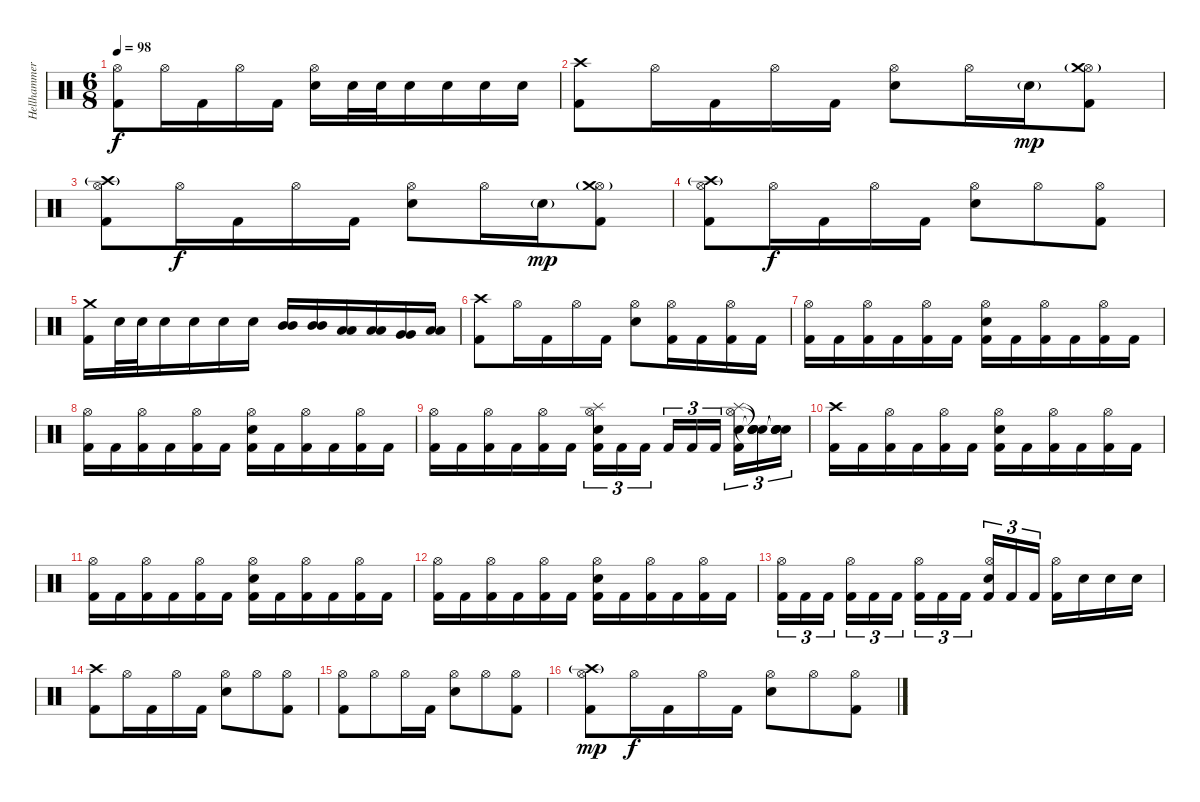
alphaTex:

\track ("Hellhammer (Drums)" "Hellhammer") {instrument percussion}
\staff {score}
\articulation defaults
\ts (6 8)
\tempo 98
\clef neutral
\ks c
("Kick (hit) 2" "Hi-Hat (open)").8{dy f} "Hi-Hat (open)".16 "Kick (hit) 2".16 "Hi-Hat (open)".16 "Kick (hit) 2".16 ("Electric Snare (hit)" "Hi-Hat (open)").16 "Electric Snare (hit)".32 "Electric Snare (hit)".32 "Electric Snare (hit)".16 "Electric Snare (hit)".16 "Electric Snare (hit)".16 "Electric Snare (hit)".16 |
("Kick (hit) 2" "Crash high (hit)").8 "Hi-Hat (open)".16 "Kick (hit) 2".16 "Hi-Hat (open)".16 "Kick (hit) 2".16 ("Electric Snare (hit)" "Hi-Hat (open)").8 "Hi-Hat (open)".16 "Electric Snare (hit)"{g}.16{dy mp} ("Kick (hit) 2" "Hi-Hat (open)" "Crash medium (hit)"{g}).8 |
("Kick (hit) 2" "Hi-Hat (open)" "Crash high (hit)"{g}).8 "Hi-Hat (open)".16{dy f} "Kick (hit) 2".16 "Hi-Hat (open)".16 "Kick (hit) 2".16 ("Electric Snare (hit)" "Hi-Hat (open)").8 "Hi-Hat (open)".16 "Electric Snare (hit)"{g}.16{dy mp} ("Kick (hit) 2" "Hi-Hat (open)" "Crash medium (hit)"{g}).8 |
("Kick (hit) 2" "Hi-Hat (open)" "Crash high (hit)"{g}).8 "Hi-Hat (open)".16{dy f} "Kick (hit) 2".16 "Hi-Hat (open)".16 "Kick (hit) 2".16 ("Electric Snare (hit)" "Hi-Hat (open)").8 "Hi-Hat (open)".8 ("Kick (hit) 2" "Hi-Hat (open)").8 |
("Kick (hit) 2" "Crash medium (hit)").16 "Electric Snare (hit)".32 "Electric Snare (hit)".32 "Electric Snare (hit)".16 "Electric Snare (hit)".16 "Electric Snare (hit)".16 "Electric Snare (hit)".16 ("Mid Tom (hit)" "Mid Tom (hit)").16 ("Mid Tom (hit)" "Mid Tom (hit)").16 ("Low Tom (hit)" "Low Tom (hit)").16 ("Low Tom (hit)" "Low Tom (hit)").16 ("Very Low Tom (hit)" "Very Low Tom (hit)").16 ("Low Floor Tom (hit)" "Low Floor Tom (hit)").16 |
("Kick (hit) 2" "Crash high (hit)").8 "Hi-Hat (open)".16 "Kick (hit) 2".16 "Hi-Hat (open)".16 "Kick (hit) 2".16 ("Electric Snare (hit)" "Hi-Hat (open)").8 ("Kick (hit) 2" "Hi-Hat (open)").16 "Kick (hit) 2".16 ("Kick (hit) 2" "Hi-Hat (open)").16 "Kick (hit) 2".16 |
("Kick (hit) 2" "Hi-Hat (open)").16 "Kick (hit) 2".16 ("Kick (hit) 2" "Hi-Hat (open)").16 "Kick (hit) 2".16 ("Kick (hit) 2" "Hi-Hat (open)").16 "Kick (hit) 2".16 ("Kick (hit) 2" "Electric Snare (hit)" "Hi-Hat (open)").16 "Kick (hit) 2".16 ("Kick (hit) 2" "Hi-Hat (open)").16 "Kick (hit) 2".16 ("Kick (hit) 2" "Hi-Hat (open)").16 "Kick (hit) 2".16 |
("Kick (hit) 2" "Hi-Hat (open)").16 "Kick (hit) 2".16 ("Kick (hit) 2" "Hi-Hat (open)").16 "Kick (hit) 2".16 ("Kick (hit) 2" "Hi-Hat (open)").16 "Kick (hit) 2".16 ("Kick (hit) 2" "Electric Snare (hit)" "Hi-Hat (open)").16 "Kick (hit) 2".16 ("Kick (hit) 2" "Hi-Hat (open)").16 "Kick (hit) 2".16 ("Kick (hit) 2" "Hi-Hat (open)").16 "Kick (hit) 2".16 |
("Kick (hit) 2" "Hi-Hat (open)").16 "Kick (hit) 2".16 ("Kick (hit) 2" "Hi-Hat (open)").16 "Kick (hit) 2".16 ("Kick (hit) 2" "Hi-Hat (open)").16 "Kick (hit) 2".16 ("Kick (hit) 2" "Electric Snare (hit)" "Hi-Hat (open)" "Splash (hit)").16{tu (3 2)} "Kick (hit) 2".16{tu (3 2)} "Kick (hit) 2".16{tu (3 2)} "Kick (hit) 2".16{tu (3 2)} "Kick (hit) 2".16{tu (3 2)} "Kick (hit) 2".16{tu (3 2)} ("Kick (hit) 2" "Electric Snare (hit)" "Hi-Hat (open)" "Splash (hit)").16{tu (3 2)} ("Snare (hit)"{t} "Snare (hit)"{t} "Snare (hit)"{t} "Snare (hit)"{t}).16{tu (3 2)} ("Snare (hit)"{t} "Snare (hit)"{t} "Snare (hit)"{t} "Snare (hit)"{t}).16{tu (3 2)} |
("Kick (hit) 2" "Crash high (hit)").16 "Kick (hit) 2".16 ("Kick (hit) 2" "Hi-Hat (open)").16 "Kick (hit) 2".16 ("Kick (hit) 2" "Hi-Hat (open)").16 "Kick (hit) 2".16 ("Kick (hit) 2" "Electric Snare (hit)" "Hi-Hat (open)").16 "Kick (hit) 2".16 ("Kick (hit) 2" "Hi-Hat (open)").16 "Kick (hit) 2".16 ("Kick (hit) 2" "Hi-Hat (open)").16 "Kick (hit) 2".16 |
("Kick (hit) 2" "Hi-Hat (open)").16 "Kick (hit) 2".16 ("Kick (hit) 2" "Hi-Hat (open)").16 "Kick (hit) 2".16 ("Kick (hit) 2" "Hi-Hat (open)").16 "Kick (hit) 2".16 ("Kick (hit) 2" "Electric Snare (hit)" "Hi-Hat (open)").16 "Kick (hit) 2".16 ("Kick (hit) 2" "Hi-Hat (open)").16 "Kick (hit) 2".16 ("Kick (hit) 2" "Hi-Hat (open)").16 "Kick (hit) 2".16 |
("Kick (hit) 2" "Hi-Hat (open)").16 "Kick (hit) 2".16 ("Kick (hit) 2" "Hi-Hat (open)").16 "Kick (hit) 2".16 ("Kick (hit) 2" "Hi-Hat (open)").16 "Kick (hit) 2".16 ("Kick (hit) 2" "Electric Snare (hit)" "Hi-Hat (open)").16 "Kick (hit) 2".16 ("Kick (hit) 2" "Hi-Hat (open)").16 "Kick (hit) 2".16 ("Kick (hit) 2" "Hi-Hat (open)").16 "Kick (hit) 2".16 |
("Kick (hit) 2" "Hi-Hat (open)").16{tu (3 2)} "Kick (hit) 2".16{tu (3 2)} "Kick (hit) 2".16{tu (3 2)} ("Kick (hit) 2" "Hi-Hat (open)").16{tu (3 2)} "Kick (hit) 2".16{tu (3 2)} "Kick (hit) 2".16{tu (3 2)} ("Kick (hit) 2" "Hi-Hat (open)").16{tu (3 2)} "Kick (hit) 2".16{tu (3 2)} "Kick (hit) 2".16{tu (3 2)} ("Kick (hit) 2" "Electric Snare (hit)" "Hi-Hat (open)").16{tu (3 2)} "Kick (hit) 2".16{tu (3 2)} "Kick (hit) 2".16{tu (3 2)} ("Kick (hit) 2" "Hi-Hat (open)").16 "Electric Snare (hit)".16 "Electric Snare (hit)".16 "Electric Snare (hit)".16 |
("Kick (hit) 2" "Crash high (hit)").8 "Hi-Hat (open)".16 "Kick (hit) 2".16 "Hi-Hat (open)".16 "Kick (hit) 2".16 ("Electric Snare (hit)" "Hi-Hat (open)").8 "Hi-Hat (open)".8 ("Kick (hit) 2" "Hi-Hat (open)").8 |
("Kick (hit) 2" "Hi-Hat (open)").8 "Hi-Hat (open)".8 "Hi-Hat (open)".16 "Kick (hit) 2".16 ("Electric Snare (hit)" "Hi-Hat (open)").8 "Hi-Hat (open)".8 ("Kick (hit) 2" "Hi-Hat (open)").8 |
("Kick (hit) 2" "Hi-Hat (open)" "Crash high (hit)"{g}).8{dy mp} "Hi-Hat (open)".16{dy f} "Kick (hit) 2".16 "Hi-Hat (open)".16 "Kick (hit) 2".16 ("Electric Snare (hit)" "Hi-Hat (open)").8 "Hi-Hat (open)".8 ("Kick (hit) 2" "Hi-Hat (open)").8
